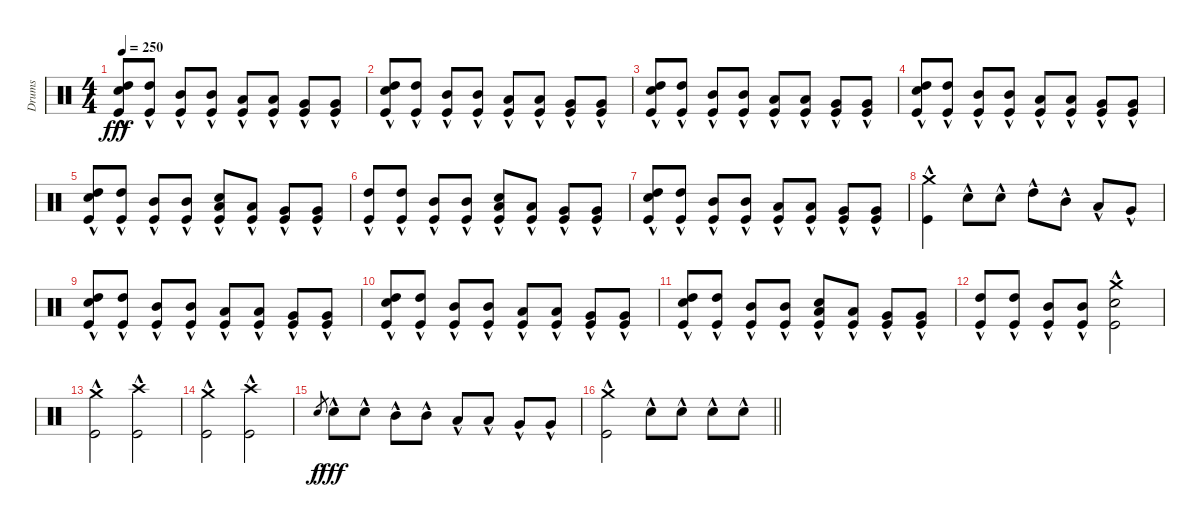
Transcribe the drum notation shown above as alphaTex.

\track ("Drums" "Drums") {instrument percussion}
\staff {score}
\articulation defaults
\ts (4 4)
\tempo 250
\clef neutral
\ks c
("High Tom (hit)"{hac} "Snare (hit) 2"{hac} "Kick (hit)"{hac}).8{dy fff} ("High Tom (hit)"{hac} "Kick (hit)"{hac}).8 ("Mid Tom (hit)"{hac} "Kick (hit)"{hac}).8 ("Mid Tom (hit)"{hac} "Kick (hit)"{hac}).8 ("Low Tom (hit)"{hac} "Kick (hit)"{hac}).8 ("Low Tom (hit)"{hac} "Kick (hit)"{hac}).8 ("Very Low Tom (hit)"{hac} "Kick (hit)"{hac}).8 ("Very Low Tom (hit)"{hac} "Kick (hit)"{hac}).8 |
("High Tom (hit)"{hac} "Snare (hit) 2"{hac} "Kick (hit)"{hac}).8 ("High Tom (hit)"{hac} "Kick (hit)"{hac}).8 ("Mid Tom (hit)"{hac} "Kick (hit)"{hac}).8 ("Mid Tom (hit)"{hac} "Kick (hit)"{hac}).8 ("Low Tom (hit)"{hac} "Kick (hit)"{hac}).8 ("Low Tom (hit)"{hac} "Kick (hit)"{hac}).8 ("Very Low Tom (hit)"{hac} "Kick (hit)"{hac}).8 ("Very Low Tom (hit)"{hac} "Kick (hit)"{hac}).8 |
("High Tom (hit)"{hac} "Snare (hit) 2"{hac} "Kick (hit)"{hac}).8 ("High Tom (hit)"{hac} "Kick (hit)"{hac}).8 ("Mid Tom (hit)"{hac} "Kick (hit)"{hac}).8 ("Mid Tom (hit)"{hac} "Kick (hit)"{hac}).8 ("Low Tom (hit)"{hac} "Kick (hit)"{hac}).8 ("Low Tom (hit)"{hac} "Kick (hit)"{hac}).8 ("Very Low Tom (hit)"{hac} "Kick (hit)"{hac}).8 ("Very Low Tom (hit)"{hac} "Kick (hit)"{hac}).8 |
("High Tom (hit)"{hac} "Snare (hit) 2"{hac} "Kick (hit)"{hac}).8 ("High Tom (hit)"{hac} "Kick (hit)"{hac}).8 ("Mid Tom (hit)"{hac} "Kick (hit)"{hac}).8 ("Mid Tom (hit)"{hac} "Kick (hit)"{hac}).8 ("Low Tom (hit)"{hac} "Kick (hit)"{hac}).8 ("Low Tom (hit)"{hac} "Kick (hit)"{hac}).8 ("Very Low Tom (hit)"{hac} "Kick (hit)"{hac}).8 ("Very Low Tom (hit)"{hac} "Kick (hit)"{hac}).8 |
("High Tom (hit)"{hac} "Snare (hit) 2"{hac} "Kick (hit)"{hac}).8 ("High Tom (hit)"{hac} "Kick (hit)"{hac}).8 ("Mid Tom (hit)"{hac} "Kick (hit)"{hac}).8 ("Mid Tom (hit)"{hac} "Kick (hit)"{hac}).8 ("Low Tom (hit)"{hac} "Snare (hit) 2"{hac} "Kick (hit)"{hac}).8 ("Low Tom (hit)"{hac} "Kick (hit)"{hac}).8 ("Very Low Tom (hit)"{hac} "Kick (hit)"{hac}).8 ("Very Low Tom (hit)"{hac} "Kick (hit)"{hac}).8 |
("High Tom (hit)"{hac} "Kick (hit)"{hac}).8 ("High Tom (hit)"{hac} "Kick (hit)"{hac}).8 ("Mid Tom (hit)"{hac} "Kick (hit)"{hac}).8 ("Mid Tom (hit)"{hac} "Kick (hit)"{hac}).8 ("Low Tom (hit)"{hac} "Snare (hit) 2"{hac} "Kick (hit)"{hac}).8 ("Low Tom (hit)"{hac} "Kick (hit)"{hac}).8 ("Very Low Tom (hit)"{hac} "Kick (hit)"{hac}).8 ("Very Low Tom (hit)"{hac} "Kick (hit)"{hac}).8 |
("High Tom (hit)"{hac} "Snare (hit) 2"{hac} "Kick (hit)"{hac}).8 ("High Tom (hit)"{hac} "Kick (hit)"{hac}).8 ("Mid Tom (hit)"{hac} "Kick (hit)"{hac}).8 ("Mid Tom (hit)"{hac} "Kick (hit)"{hac}).8 ("Low Tom (hit)"{hac} "Kick (hit)"{hac}).8 ("Low Tom (hit)"{hac} "Kick (hit)"{hac}).8 ("Very Low Tom (hit)"{hac} "Kick (hit)"{hac}).8 ("Very Low Tom (hit)"{hac} "Kick (hit)"{hac}).8 |
("Crash medium (hit)"{hac} "Kick (hit)"{hac}).4 "Snare (hit) 2"{hac}.8 "Snare (hit) 2"{hac}.8 "High Tom (hit)"{hac}.8 "Mid Tom (hit)"{hac}.8 "Low Tom (hit)"{hac}.8 "Very Low Tom (hit)"{hac}.8 |
("High Tom (hit)"{hac} "Snare (hit) 2"{hac} "Kick (hit)"{hac}).8 ("High Tom (hit)"{hac} "Kick (hit)"{hac}).8 ("Mid Tom (hit)"{hac} "Kick (hit)"{hac}).8 ("Mid Tom (hit)"{hac} "Kick (hit)"{hac}).8 ("Low Tom (hit)"{hac} "Kick (hit)"{hac}).8 ("Low Tom (hit)"{hac} "Kick (hit)"{hac}).8 ("Very Low Tom (hit)"{hac} "Kick (hit)"{hac}).8 ("Very Low Tom (hit)"{hac} "Kick (hit)"{hac}).8 |
("High Tom (hit)"{hac} "Snare (hit) 2"{hac} "Kick (hit)"{hac}).8 ("High Tom (hit)"{hac} "Kick (hit)"{hac}).8 ("Mid Tom (hit)"{hac} "Kick (hit)"{hac}).8 ("Mid Tom (hit)"{hac} "Kick (hit)"{hac}).8 ("Low Tom (hit)"{hac} "Kick (hit)"{hac}).8 ("Low Tom (hit)"{hac} "Kick (hit)"{hac}).8 ("Very Low Tom (hit)"{hac} "Kick (hit)"{hac}).8 ("Very Low Tom (hit)"{hac} "Kick (hit)"{hac}).8 |
("High Tom (hit)"{hac} "Snare (hit) 2"{hac} "Kick (hit)"{hac}).8 ("High Tom (hit)"{hac} "Kick (hit)"{hac}).8 ("Mid Tom (hit)"{hac} "Kick (hit)"{hac}).8 ("Mid Tom (hit)"{hac} "Kick (hit)"{hac}).8 ("Low Tom (hit)"{hac} "Snare (hit) 2"{hac} "Kick (hit)"{hac}).8 ("Low Tom (hit)"{hac} "Kick (hit)"{hac}).8 ("Very Low Tom (hit)"{hac} "Kick (hit)"{hac}).8 ("Very Low Tom (hit)"{hac} "Kick (hit)"{hac}).8 |
("High Tom (hit)"{hac} "Kick (hit)"{hac}).8 ("High Tom (hit)"{hac} "Kick (hit)"{hac}).8 ("Mid Tom (hit)"{hac} "Kick (hit)"{hac}).8 ("Mid Tom (hit)"{hac} "Kick (hit)"{hac}).8 ("Crash medium (hit)"{hac} "Snare (hit) 2"{hac} "Kick (hit)"{hac}).2 |
("Crash medium (hit)"{hac} "Kick (hit)"{hac}).2 ("Crash high (hit)"{hac} "Kick (hit)"{hac}).2 |
("Crash medium (hit)"{hac} "Kick (hit)"{hac}).2 ("Crash high (hit)"{hac} "Kick (hit)"{hac}).2 |
"Snare (hit) 2".8{gr dy f} "Snare (hit) 2"{hac}.8{dy fff} "Snare (hit) 2"{hac}.8 "Mid Tom (hit)"{hac}.8 "Mid Tom (hit)"{hac}.8 "Low Tom (hit)"{hac}.8 "Low Tom (hit)"{hac}.8 "Very Low Tom (hit)"{hac}.8 "Very Low Tom (hit)"{hac}.8 |
\barLineRight lightlight
("Crash medium (hit)"{hac} "Kick (hit)"{hac}).2 "Snare (hit) 2"{hac}.8 "Snare (hit) 2"{hac}.8 "Snare (hit) 2"{hac}.8 "Snare (hit) 2"{hac}.8
